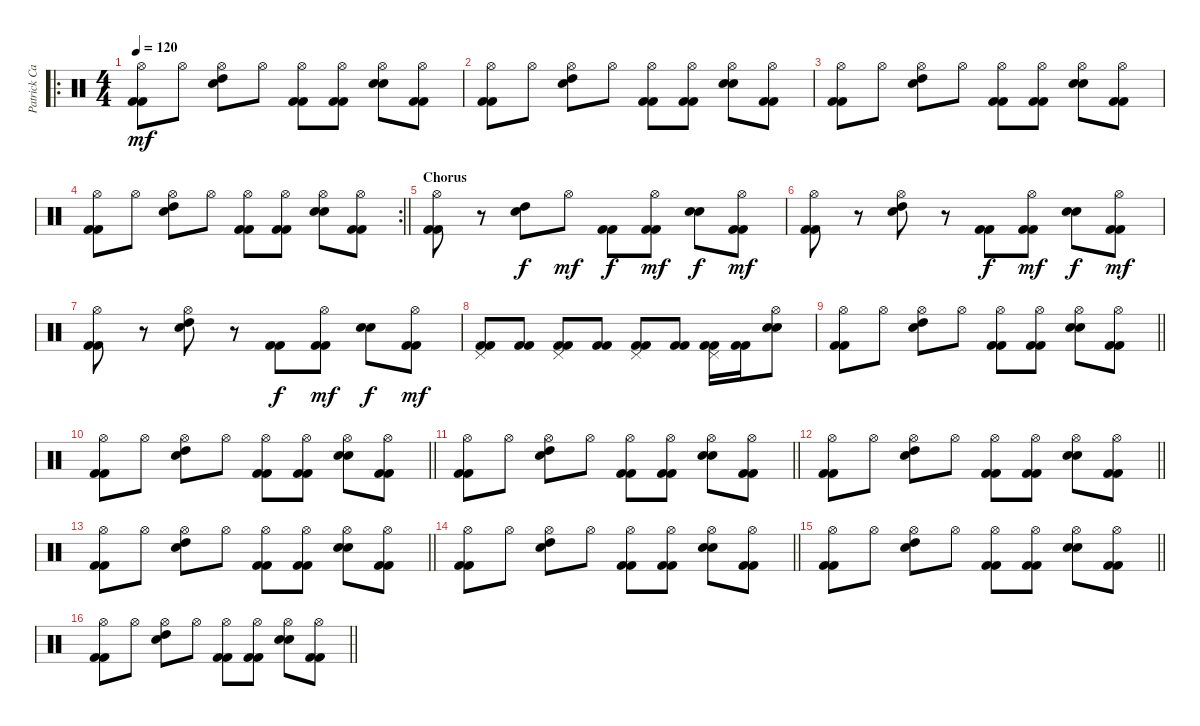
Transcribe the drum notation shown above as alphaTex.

\track ("Patrick Carney" "Patrick Ca") {instrument percussion}
\staff {score}
\articulation defaults
\ro
\ts (4 4)
\tempo 120
\clef neutral
\ks c
("Hi-Hat (open)" "Kick (hit) 2" "Kick (hit) 2").8{dy mf} "Hi-Hat (open)".8 ("Hi-Hat (open)" "Electric Snare (hit)" "High Tom (hit)").8 "Hi-Hat (open)".8 ("Hi-Hat (open)" "Kick (hit) 2" "Kick (hit) 2").8 ("Hi-Hat (open)" "Kick (hit) 2" "Kick (hit) 2").8 ("Hi-Hat (open)" "Electric Snare (hit)" "Snare (hit) 2").8 ("Hi-Hat (open)" "Kick (hit) 2" "Kick (hit) 2").8 |
("Hi-Hat (open)" "Kick (hit) 2" "Kick (hit) 2").8 "Hi-Hat (open)".8 ("Hi-Hat (open)" "Electric Snare (hit)" "High Tom (hit)").8 "Hi-Hat (open)".8 ("Hi-Hat (open)" "Kick (hit) 2" "Kick (hit) 2").8 ("Hi-Hat (open)" "Kick (hit) 2" "Kick (hit) 2").8 ("Hi-Hat (open)" "Electric Snare (hit)" "Snare (hit) 2").8 ("Hi-Hat (open)" "Kick (hit) 2" "Kick (hit) 2").8 |
("Hi-Hat (open)" "Kick (hit) 2" "Kick (hit) 2").8 "Hi-Hat (open)".8 ("Hi-Hat (open)" "Electric Snare (hit)" "High Tom (hit)").8 "Hi-Hat (open)".8 ("Hi-Hat (open)" "Kick (hit) 2" "Kick (hit) 2").8 ("Hi-Hat (open)" "Kick (hit) 2" "Kick (hit) 2").8 ("Hi-Hat (open)" "Electric Snare (hit)" "Snare (hit) 2").8 ("Hi-Hat (open)" "Kick (hit) 2" "Kick (hit) 2").8 |
\rc 2
\barLineRight lightlight
("Hi-Hat (open)" "Kick (hit) 2" "Kick (hit) 2").8 "Hi-Hat (open)".8 ("Hi-Hat (open)" "Electric Snare (hit)" "High Tom (hit)").8 "Hi-Hat (open)".8 ("Hi-Hat (open)" "Kick (hit) 2" "Kick (hit) 2").8 ("Hi-Hat (open)" "Kick (hit) 2" "Kick (hit) 2").8 ("Hi-Hat (open)" "Electric Snare (hit)" "Snare (hit) 2").8 ("Hi-Hat (open)" "Kick (hit) 2" "Kick (hit) 2").8 |
\section ("" "Chorus")
("Hi-Hat (open)" "Kick (hit) 2" "Kick (hit) 2").8 r.8 ("Electric Snare (hit)" "High Tom (hit)").8{dy f} "Hi-Hat (open)".8{dy mf} ("Kick (hit) 2" "Kick (hit) 2").8{dy f} ("Hi-Hat (open)" "Kick (hit) 2" "Kick (hit) 2").8{dy mf} ("Electric Snare (hit)" "Snare (hit) 2").8{dy f} ("Hi-Hat (open)" "Kick (hit) 2" "Kick (hit) 2").8{dy mf} |
("Hi-Hat (open)" "Kick (hit) 2" "Kick (hit) 2").8 r.8 ("Hi-Hat (open)" "Electric Snare (hit)" "High Tom (hit)").8 r.8 ("Kick (hit) 2" "Kick (hit) 2").8{dy f} ("Hi-Hat (open)" "Kick (hit) 2" "Kick (hit) 2").8{dy mf} ("Electric Snare (hit)" "Snare (hit) 2").8{dy f} ("Hi-Hat (open)" "Kick (hit) 2" "Kick (hit) 2").8{dy mf} |
("Hi-Hat (open)" "Kick (hit) 2" "Kick (hit) 2").8 r.8 ("Hi-Hat (open)" "Electric Snare (hit)" "High Tom (hit)").8 r.8 ("Kick (hit) 2" "Kick (hit) 2").8{dy f} ("Hi-Hat (open)" "Kick (hit) 2" "Kick (hit) 2").8{dy mf} ("Electric Snare (hit)" "Snare (hit) 2").8{dy f} ("Hi-Hat (open)" "Kick (hit) 2" "Kick (hit) 2").8{dy mf} |
("Pedal Hi-Hat (hit)" "Kick (hit) 2" "Kick (hit) 2").8 ("Kick (hit) 2" "Kick (hit) 2").8 ("Pedal Hi-Hat (hit)" "Kick (hit) 2" "Kick (hit) 2").8 ("Kick (hit) 2" "Kick (hit) 2").8 ("Pedal Hi-Hat (hit)" "Kick (hit) 2" "Kick (hit) 2").8 ("Kick (hit) 2" "Kick (hit) 2").8 ("Pedal Hi-Hat (hit)" "Kick (hit) 2" "Kick (hit) 2").16 ("Kick (hit) 2" "Kick (hit) 2").16 ("Hi-Hat (open)" "Electric Snare (hit)" "Snare (hit) 2").8 |
\barLineRight lightlight
("Hi-Hat (open)" "Kick (hit) 2" "Kick (hit) 2").8 "Hi-Hat (open)".8 ("Hi-Hat (open)" "Electric Snare (hit)" "High Tom (hit)").8 "Hi-Hat (open)".8 ("Hi-Hat (open)" "Kick (hit) 2" "Kick (hit) 2").8 ("Hi-Hat (open)" "Kick (hit) 2" "Kick (hit) 2").8 ("Hi-Hat (open)" "Electric Snare (hit)" "Snare (hit) 2").8 ("Hi-Hat (open)" "Kick (hit) 2" "Kick (hit) 2").8 |
\barLineRight lightlight
("Hi-Hat (open)" "Kick (hit) 2" "Kick (hit) 2").8 "Hi-Hat (open)".8 ("Hi-Hat (open)" "Electric Snare (hit)" "High Tom (hit)").8 "Hi-Hat (open)".8 ("Hi-Hat (open)" "Kick (hit) 2" "Kick (hit) 2").8 ("Hi-Hat (open)" "Kick (hit) 2" "Kick (hit) 2").8 ("Hi-Hat (open)" "Electric Snare (hit)" "Snare (hit) 2").8 ("Hi-Hat (open)" "Kick (hit) 2" "Kick (hit) 2").8 |
\barLineRight lightlight
("Hi-Hat (open)" "Kick (hit) 2" "Kick (hit) 2").8 "Hi-Hat (open)".8 ("Hi-Hat (open)" "Electric Snare (hit)" "High Tom (hit)").8 "Hi-Hat (open)".8 ("Hi-Hat (open)" "Kick (hit) 2" "Kick (hit) 2").8 ("Hi-Hat (open)" "Kick (hit) 2" "Kick (hit) 2").8 ("Hi-Hat (open)" "Electric Snare (hit)" "Snare (hit) 2").8 ("Hi-Hat (open)" "Kick (hit) 2" "Kick (hit) 2").8 |
\barLineRight lightlight
("Hi-Hat (open)" "Kick (hit) 2" "Kick (hit) 2").8 "Hi-Hat (open)".8 ("Hi-Hat (open)" "Electric Snare (hit)" "High Tom (hit)").8 "Hi-Hat (open)".8 ("Hi-Hat (open)" "Kick (hit) 2" "Kick (hit) 2").8 ("Hi-Hat (open)" "Kick (hit) 2" "Kick (hit) 2").8 ("Hi-Hat (open)" "Electric Snare (hit)" "Snare (hit) 2").8 ("Hi-Hat (open)" "Kick (hit) 2" "Kick (hit) 2").8 |
\barLineRight lightlight
("Hi-Hat (open)" "Kick (hit) 2" "Kick (hit) 2").8 "Hi-Hat (open)".8 ("Hi-Hat (open)" "Electric Snare (hit)" "High Tom (hit)").8 "Hi-Hat (open)".8 ("Hi-Hat (open)" "Kick (hit) 2" "Kick (hit) 2").8 ("Hi-Hat (open)" "Kick (hit) 2" "Kick (hit) 2").8 ("Hi-Hat (open)" "Electric Snare (hit)" "Snare (hit) 2").8 ("Hi-Hat (open)" "Kick (hit) 2" "Kick (hit) 2").8 |
\barLineRight lightlight
("Hi-Hat (open)" "Kick (hit) 2" "Kick (hit) 2").8 "Hi-Hat (open)".8 ("Hi-Hat (open)" "Electric Snare (hit)" "High Tom (hit)").8 "Hi-Hat (open)".8 ("Hi-Hat (open)" "Kick (hit) 2" "Kick (hit) 2").8 ("Hi-Hat (open)" "Kick (hit) 2" "Kick (hit) 2").8 ("Hi-Hat (open)" "Electric Snare (hit)" "Snare (hit) 2").8 ("Hi-Hat (open)" "Kick (hit) 2" "Kick (hit) 2").8 |
\barLineRight lightlight
("Hi-Hat (open)" "Kick (hit) 2" "Kick (hit) 2").8 "Hi-Hat (open)".8 ("Hi-Hat (open)" "Electric Snare (hit)" "High Tom (hit)").8 "Hi-Hat (open)".8 ("Hi-Hat (open)" "Kick (hit) 2" "Kick (hit) 2").8 ("Hi-Hat (open)" "Kick (hit) 2" "Kick (hit) 2").8 ("Hi-Hat (open)" "Electric Snare (hit)" "Snare (hit) 2").8 ("Hi-Hat (open)" "Kick (hit) 2" "Kick (hit) 2").8 |
\barLineRight lightlight
("Hi-Hat (open)" "Kick (hit) 2" "Kick (hit) 2").8 "Hi-Hat (open)".8 ("Hi-Hat (open)" "Electric Snare (hit)" "High Tom (hit)").8 "Hi-Hat (open)".8 ("Hi-Hat (open)" "Kick (hit) 2" "Kick (hit) 2").8 ("Hi-Hat (open)" "Kick (hit) 2" "Kick (hit) 2").8 ("Hi-Hat (open)" "Electric Snare (hit)" "Snare (hit) 2").8 ("Hi-Hat (open)" "Kick (hit) 2" "Kick (hit) 2").8
